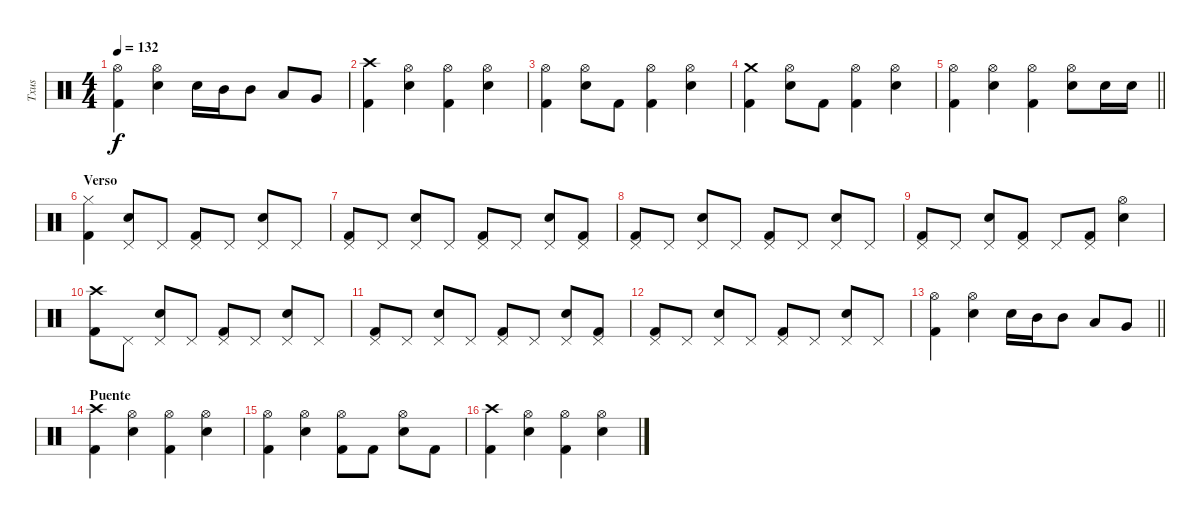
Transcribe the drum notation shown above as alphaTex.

\track ("Txus" "Txus") {instrument percussion}
\staff {score}
\articulation defaults
\ts (4 4)
\tempo 132
\clef neutral
\ks c
("Hi-Hat (open)" "Kick (hit) 2").4{dy f} ("Hi-Hat (open)" "Electric Snare (hit)").4 "Electric Snare (hit)".16 "Mid Tom (hit)".16 "Mid Tom (hit)".8 "Low Tom (hit)".8 "Very Low Tom (hit)".8 |
("Crash high (hit)" "Kick (hit) 2").4 ("Hi-Hat (open)" "Electric Snare (hit)").4 ("Hi-Hat (open)" "Kick (hit) 2").4 ("Hi-Hat (open)" "Electric Snare (hit)").4 |
("Hi-Hat (open)" "Kick (hit) 2").4 ("Hi-Hat (open)" "Electric Snare (hit)").8 "Kick (hit) 2".8 ("Hi-Hat (open)" "Kick (hit) 2").4 ("Hi-Hat (open)" "Electric Snare (hit)").4 |
("Crash medium (hit)" "Kick (hit) 2").4 ("Hi-Hat (open)" "Electric Snare (hit)").8 "Kick (hit) 2".8 ("Hi-Hat (open)" "Kick (hit) 2").4 ("Hi-Hat (open)" "Electric Snare (hit)").4 |
\barLineRight lightlight
("Hi-Hat (open)" "Kick (hit) 2").4 ("Hi-Hat (open)" "Electric Snare (hit)").4 ("Hi-Hat (open)" "Kick (hit) 2").4 ("Hi-Hat (open)" "Electric Snare (hit)").8 "Electric Snare (hit)".16 "Electric Snare (hit)".16 |
\section ("" "Verso")
("Hi-Hat (closed)" "Kick (hit) 2").4 ("Pedal Hi-Hat (hit)" "Electric Snare (hit)").8 "Pedal Hi-Hat (hit)".8 ("Pedal Hi-Hat (hit)" "Kick (hit) 2").8 "Pedal Hi-Hat (hit)".8 ("Pedal Hi-Hat (hit)" "Electric Snare (hit)").8 "Pedal Hi-Hat (hit)".8 |
("Pedal Hi-Hat (hit)" "Kick (hit) 2").8 "Pedal Hi-Hat (hit)".8 ("Pedal Hi-Hat (hit)" "Electric Snare (hit)").8 "Pedal Hi-Hat (hit)".8 ("Pedal Hi-Hat (hit)" "Kick (hit) 2").8 "Pedal Hi-Hat (hit)".8 ("Pedal Hi-Hat (hit)" "Electric Snare (hit)").8 ("Pedal Hi-Hat (hit)" "Kick (hit) 2").8 |
("Pedal Hi-Hat (hit)" "Kick (hit) 2").8 "Pedal Hi-Hat (hit)".8 ("Pedal Hi-Hat (hit)" "Electric Snare (hit)").8 "Pedal Hi-Hat (hit)".8 ("Pedal Hi-Hat (hit)" "Kick (hit) 2").8 "Pedal Hi-Hat (hit)".8 ("Pedal Hi-Hat (hit)" "Electric Snare (hit)").8 "Pedal Hi-Hat (hit)".8 |
("Pedal Hi-Hat (hit)" "Kick (hit) 2").8 "Pedal Hi-Hat (hit)".8 ("Pedal Hi-Hat (hit)" "Electric Snare (hit)").8 ("Pedal Hi-Hat (hit)" "Kick (hit) 2").8 "Pedal Hi-Hat (hit)".8 ("Pedal Hi-Hat (hit)" "Kick (hit) 2").8 ("Hi-Hat (open)" "Electric Snare (hit)").4 |
("Crash high (hit)" "Kick (hit) 2").8 "Pedal Hi-Hat (hit)".8 ("Pedal Hi-Hat (hit)" "Electric Snare (hit)").8 "Pedal Hi-Hat (hit)".8 ("Pedal Hi-Hat (hit)" "Kick (hit) 2").8 "Pedal Hi-Hat (hit)".8 ("Pedal Hi-Hat (hit)" "Electric Snare (hit)").8 "Pedal Hi-Hat (hit)".8 |
("Pedal Hi-Hat (hit)" "Kick (hit) 2").8 "Pedal Hi-Hat (hit)".8 ("Pedal Hi-Hat (hit)" "Electric Snare (hit)").8 "Pedal Hi-Hat (hit)".8 ("Pedal Hi-Hat (hit)" "Kick (hit) 2").8 "Pedal Hi-Hat (hit)".8 ("Pedal Hi-Hat (hit)" "Electric Snare (hit)").8 ("Pedal Hi-Hat (hit)" "Kick (hit) 2").8 |
("Pedal Hi-Hat (hit)" "Kick (hit) 2").8 "Pedal Hi-Hat (hit)".8 ("Pedal Hi-Hat (hit)" "Electric Snare (hit)").8 "Pedal Hi-Hat (hit)".8 ("Pedal Hi-Hat (hit)" "Kick (hit) 2").8 "Pedal Hi-Hat (hit)".8 ("Pedal Hi-Hat (hit)" "Electric Snare (hit)").8 "Pedal Hi-Hat (hit)".8 |
\barLineRight lightlight
("Hi-Hat (open)" "Kick (hit) 2").4 ("Hi-Hat (open)" "Electric Snare (hit)").4 "Electric Snare (hit)".16 "Mid Tom (hit)".16 "Mid Tom (hit)".8 "Low Tom (hit)".8 "Very Low Tom (hit)".8 |
\section ("" "Puente")
("Crash high (hit)" "Kick (hit) 2").4 ("Hi-Hat (open)" "Electric Snare (hit)").4 ("Hi-Hat (open)" "Kick (hit) 2").4 ("Hi-Hat (open)" "Electric Snare (hit)").4 |
("Hi-Hat (open)" "Kick (hit) 2").4 ("Hi-Hat (open)" "Electric Snare (hit)").4 ("Hi-Hat (open)" "Kick (hit) 2").8 "Kick (hit) 2".8 ("Hi-Hat (open)" "Electric Snare (hit)").8 "Kick (hit) 2".8 |
("Crash high (hit)" "Kick (hit) 2").4 ("Hi-Hat (open)" "Electric Snare (hit)").4 ("Hi-Hat (open)" "Kick (hit) 2").4 ("Hi-Hat (open)" "Electric Snare (hit)").4
